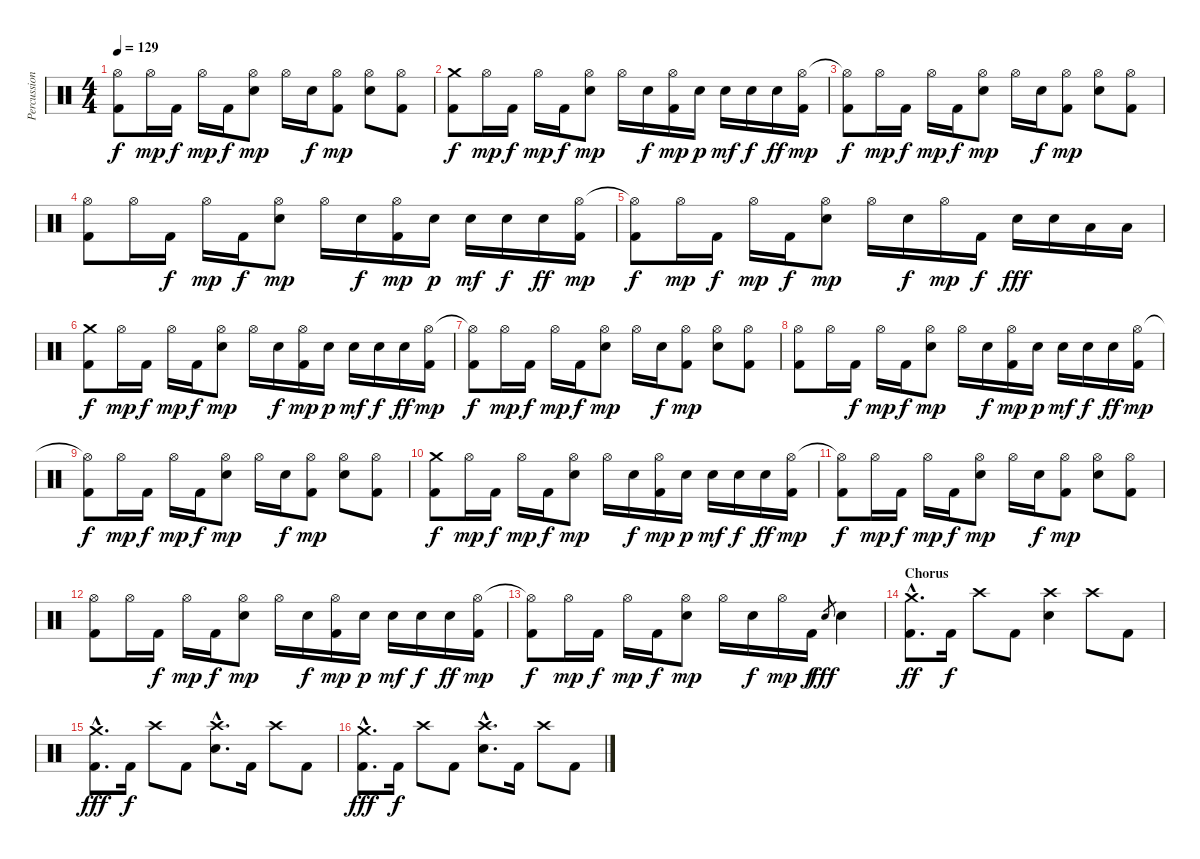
\track ("Percussions" "Percussion") {instrument percussion}
\staff {score}
\articulation defaults
\ts (4 4)
\tempo 129
\clef neutral
\ks c
("Hi-Hat (open)"{t} "Kick (hit) 2").8{dy f} "Hi-Hat (open)".16{dy mp} "Kick (hit) 2".16{dy f} "Hi-Hat (open)".16{dy mp} "Kick (hit) 2".16{dy f} ("Hi-Hat (open)" "Snare (hit) 2").8{dy mp} "Hi-Hat (open)".16 "Snare (hit) 2".16{dy f} ("Hi-Hat (open)" "Kick (hit) 2").8{dy mp} ("Hi-Hat (open)" "Snare (hit) 2").8 ("Hi-Hat (open)" "Kick (hit) 2").8 |
("Crash medium (hit)" "Kick (hit) 2").8{dy f} "Hi-Hat (open)".16{dy mp} "Kick (hit) 2".16{dy f} "Hi-Hat (open)".16{dy mp} "Kick (hit) 2".16{dy f} ("Hi-Hat (open)" "Snare (hit) 2").8{dy mp} "Hi-Hat (open)".16 "Snare (hit) 2".16{dy f} ("Hi-Hat (open)" "Kick (hit) 2").16{dy mp} "Snare (hit) 2".16{dy p} "Snare (hit) 2".16{dy mf} "Snare (hit) 2".16{dy f} "Snare (hit) 2".16{dy ff} ("Hi-Hat (open)" "Kick (hit) 2").16{dy mp} |
("Hi-Hat (open)"{t} "Kick (hit) 2").8{dy f} "Hi-Hat (open)".16{dy mp} "Kick (hit) 2".16{dy f} "Hi-Hat (open)".16{dy mp} "Kick (hit) 2".16{dy f} ("Hi-Hat (open)" "Snare (hit) 2").8{dy mp} "Hi-Hat (open)".16 "Snare (hit) 2".16{dy f} ("Hi-Hat (open)" "Kick (hit) 2").8{dy mp} ("Hi-Hat (open)" "Snare (hit) 2").8 ("Hi-Hat (open)" "Kick (hit) 2").8 |
("Hi-Hat (open)" "Kick (hit) 2").8 "Hi-Hat (open)".16 "Kick (hit) 2".16{dy f} "Hi-Hat (open)".16{dy mp} "Kick (hit) 2".16{dy f} ("Hi-Hat (open)" "Snare (hit) 2").8{dy mp} "Hi-Hat (open)".16 "Snare (hit) 2".16{dy f} ("Hi-Hat (open)" "Kick (hit) 2").16{dy mp} "Snare (hit) 2".16{dy p} "Snare (hit) 2".16{dy mf} "Snare (hit) 2".16{dy f} "Snare (hit) 2".16{dy ff} ("Hi-Hat (open)" "Kick (hit) 2").16{dy mp} |
("Hi-Hat (open)"{t} "Kick (hit) 2").8{dy f} "Hi-Hat (open)".16{dy mp} "Kick (hit) 2".16{dy f} "Hi-Hat (open)".16{dy mp} "Kick (hit) 2".16{dy f} ("Hi-Hat (open)" "Snare (hit) 2").8{dy mp} "Hi-Hat (open)".16 "Snare (hit) 2".16{dy f} "Hi-Hat (open)".16{dy mp} "Kick (hit) 2".16{dy f} "Snare (hit) 2".16{dy fff} "Snare (hit) 2".16 "Low Tom (hit)".16 "Low Tom (hit)".16 |
("Crash medium (hit)" "Kick (hit) 2").8{dy f} "Hi-Hat (open)".16{dy mp} "Kick (hit) 2".16{dy f} "Hi-Hat (open)".16{dy mp} "Kick (hit) 2".16{dy f} ("Hi-Hat (open)" "Snare (hit) 2").8{dy mp} "Hi-Hat (open)".16 "Snare (hit) 2".16{dy f} ("Hi-Hat (open)" "Kick (hit) 2").16{dy mp} "Snare (hit) 2".16{dy p} "Snare (hit) 2".16{dy mf} "Snare (hit) 2".16{dy f} "Snare (hit) 2".16{dy ff} ("Hi-Hat (open)" "Kick (hit) 2").16{dy mp} |
("Hi-Hat (open)"{t} "Kick (hit) 2").8{dy f} "Hi-Hat (open)".16{dy mp} "Kick (hit) 2".16{dy f} "Hi-Hat (open)".16{dy mp} "Kick (hit) 2".16{dy f} ("Hi-Hat (open)" "Snare (hit) 2").8{dy mp} "Hi-Hat (open)".16 "Snare (hit) 2".16{dy f} ("Hi-Hat (open)" "Kick (hit) 2").8{dy mp} ("Hi-Hat (open)" "Snare (hit) 2").8 ("Hi-Hat (open)" "Kick (hit) 2").8 |
("Hi-Hat (open)" "Kick (hit) 2").8 "Hi-Hat (open)".16 "Kick (hit) 2".16{dy f} "Hi-Hat (open)".16{dy mp} "Kick (hit) 2".16{dy f} ("Hi-Hat (open)" "Snare (hit) 2").8{dy mp} "Hi-Hat (open)".16 "Snare (hit) 2".16{dy f} ("Hi-Hat (open)" "Kick (hit) 2").16{dy mp} "Snare (hit) 2".16{dy p} "Snare (hit) 2".16{dy mf} "Snare (hit) 2".16{dy f} "Snare (hit) 2".16{dy ff} ("Hi-Hat (open)" "Kick (hit) 2").16{dy mp} |
("Hi-Hat (open)"{t} "Kick (hit) 2").8{dy f} "Hi-Hat (open)".16{dy mp} "Kick (hit) 2".16{dy f} "Hi-Hat (open)".16{dy mp} "Kick (hit) 2".16{dy f} ("Hi-Hat (open)" "Snare (hit) 2").8{dy mp} "Hi-Hat (open)".16 "Snare (hit) 2".16{dy f} ("Hi-Hat (open)" "Kick (hit) 2").8{dy mp} ("Hi-Hat (open)" "Snare (hit) 2").8 ("Hi-Hat (open)" "Kick (hit) 2").8 |
("Crash medium (hit)" "Kick (hit) 2").8{dy f} "Hi-Hat (open)".16{dy mp} "Kick (hit) 2".16{dy f} "Hi-Hat (open)".16{dy mp} "Kick (hit) 2".16{dy f} ("Hi-Hat (open)" "Snare (hit) 2").8{dy mp} "Hi-Hat (open)".16 "Snare (hit) 2".16{dy f} ("Hi-Hat (open)" "Kick (hit) 2").16{dy mp} "Snare (hit) 2".16{dy p} "Snare (hit) 2".16{dy mf} "Snare (hit) 2".16{dy f} "Snare (hit) 2".16{dy ff} ("Hi-Hat (open)" "Kick (hit) 2").16{dy mp} |
("Hi-Hat (open)"{t} "Kick (hit) 2").8{dy f} "Hi-Hat (open)".16{dy mp} "Kick (hit) 2".16{dy f} "Hi-Hat (open)".16{dy mp} "Kick (hit) 2".16{dy f} ("Hi-Hat (open)" "Snare (hit) 2").8{dy mp} "Hi-Hat (open)".16 "Snare (hit) 2".16{dy f} ("Hi-Hat (open)" "Kick (hit) 2").8{dy mp} ("Hi-Hat (open)" "Snare (hit) 2").8 ("Hi-Hat (open)" "Kick (hit) 2").8 |
("Hi-Hat (open)" "Kick (hit) 2").8 "Hi-Hat (open)".16 "Kick (hit) 2".16{dy f} "Hi-Hat (open)".16{dy mp} "Kick (hit) 2".16{dy f} ("Hi-Hat (open)" "Snare (hit) 2").8{dy mp} "Hi-Hat (open)".16 "Snare (hit) 2".16{dy f} ("Hi-Hat (open)" "Kick (hit) 2").16{dy mp} "Snare (hit) 2".16{dy p} "Snare (hit) 2".16{dy mf} "Snare (hit) 2".16{dy f} "Snare (hit) 2".16{dy ff} ("Hi-Hat (open)" "Kick (hit) 2").16{dy mp} |
("Hi-Hat (open)"{t} "Kick (hit) 2").8{dy f} "Hi-Hat (open)".16{dy mp} "Kick (hit) 2".16{dy f} "Hi-Hat (open)".16{dy mp} "Kick (hit) 2".16{dy f} ("Hi-Hat (open)" "Snare (hit) 2").8{dy mp} "Hi-Hat (open)".16 "Snare (hit) 2".16{dy f} "Hi-Hat (open)".16{dy mp} "Kick (hit) 2".16{dy f} "Snare (hit) 2".8{gr dy fff} "Snare (hit) 2".4 |
\section ("" "Chorus")
("Crash medium (hit)"{hac} "Kick (hit) 2"{hac}).8{d dy ff} "Kick (hit) 2".16{dy f} "Crash high (hit)".8 "Kick (hit) 2".8 ("Crash high (hit)" "Snare (hit) 2").4 "Crash high (hit)".8 "Kick (hit) 2".8 |
("Crash medium (hit)"{hac} "Kick (hit) 2"{hac}).8{d dy fff} "Kick (hit) 2".16{dy f} "Crash high (hit)".8 "Kick (hit) 2".8 ("Crash high (hit)"{hac} "Snare (hit) 2"{hac}).8{d} "Kick (hit) 2".16 "Crash high (hit)".8 "Kick (hit) 2".8 |
("Crash medium (hit)"{hac} "Kick (hit) 2"{hac}).8{d dy fff} "Kick (hit) 2".16{dy f} "Crash high (hit)".8 "Kick (hit) 2".8 ("Crash high (hit)"{hac} "Snare (hit) 2"{hac}).8{d} "Kick (hit) 2".16 "Crash high (hit)".8 "Kick (hit) 2".8
